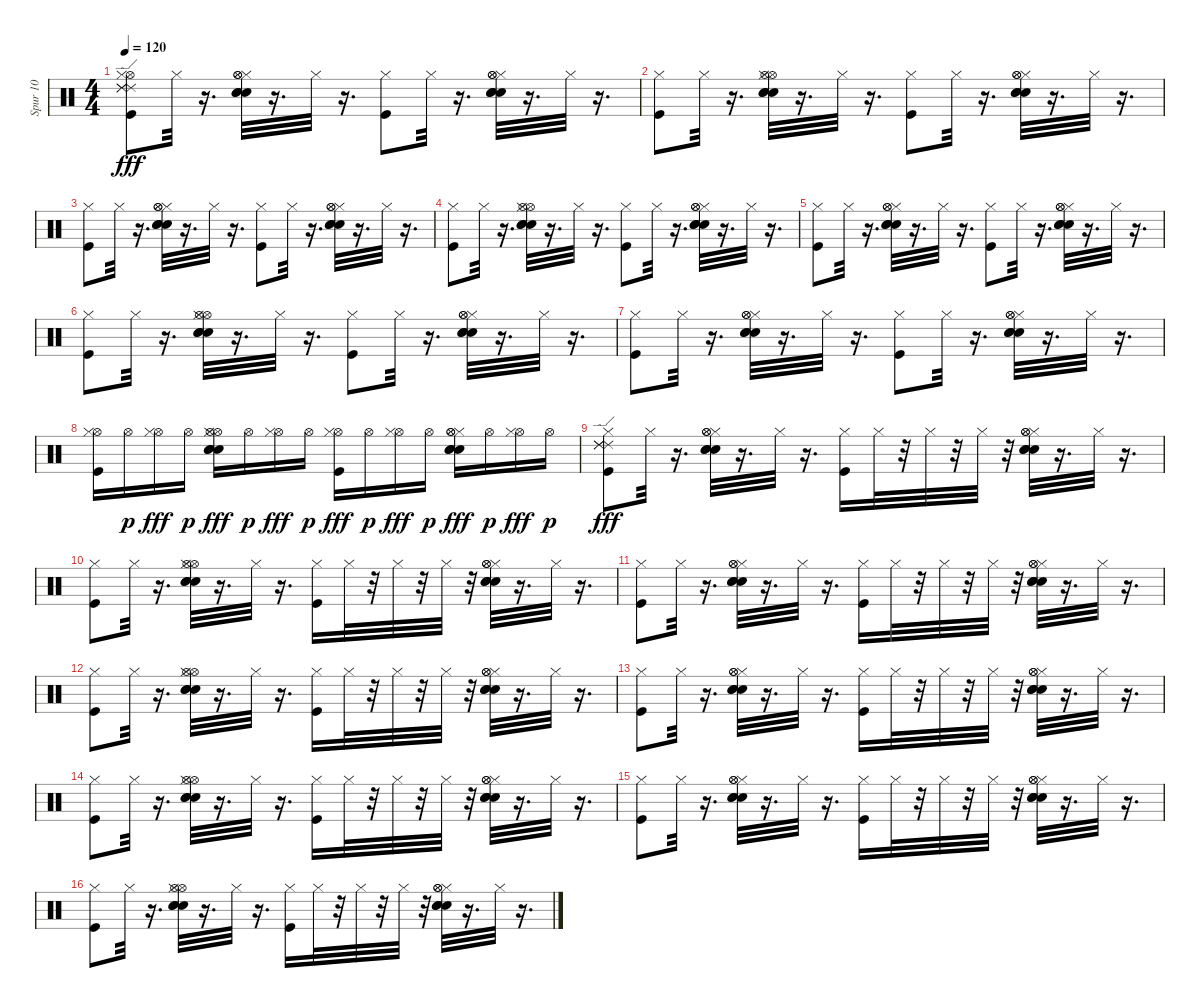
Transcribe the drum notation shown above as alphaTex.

\track ("Spur 10" "Spur 10") {instrument percussion}
\staff {score}
\articulation defaults
\ts (4 4)
\tempo 120
\clef neutral
\ks c
("Ride (edge) 2" "Ride (edge) 2" "Ride (edge) 2" "Hi-Hat (open)" "Kick (hit)" "Hi-Hat (closed)").8{dy fff} "Hi-Hat (closed)".32 r.16{d} ("Snare (hit) 2" "Snare (hit) 2" "Hi-Hat (closed)" "Snare (hit) 2" "Hi-Hat (open)" "Hi-Hat (open)").32 r.16{d} "Hi-Hat (closed)".32 r.16{d} ("Hi-Hat (closed)" "Kick (hit)").8 "Hi-Hat (closed)".32 r.16{d} ("Hi-Hat (closed)" "Snare (hit) 2" "Hi-Hat (open)" "Hi-Hat (open)" "Snare (hit) 2" "Snare (hit) 2").32 r.16{d} "Hi-Hat (closed)".32 r.16{d} |
("Hi-Hat (closed)" "Kick (hit)").8 "Hi-Hat (closed)".32 r.16{d} ("Hi-Hat (open)" "Hi-Hat (closed)" "Snare (hit) 2" "Hi-Hat (open)" "Snare (hit) 2" "Snare (hit) 2").32 r.16{d} "Hi-Hat (closed)".32 r.16{d} ("Kick (hit)" "Hi-Hat (closed)").8 "Hi-Hat (closed)".32 r.16{d} ("Snare (hit) 2" "Hi-Hat (closed)" "Hi-Hat (open)" "Snare (hit) 2" "Hi-Hat (open)" "Snare (hit) 2").32 r.16{d} "Hi-Hat (closed)".32 r.16{d} |
("Kick (hit)" "Hi-Hat (closed)").8 "Hi-Hat (closed)".32 r.16{d} ("Snare (hit) 2" "Snare (hit) 2" "Hi-Hat (closed)" "Snare (hit) 2" "Hi-Hat (open)" "Hi-Hat (open)").32 r.16{d} "Hi-Hat (closed)".32 r.16{d} ("Hi-Hat (closed)" "Kick (hit)").8 "Hi-Hat (closed)".32 r.16{d} ("Hi-Hat (closed)" "Snare (hit) 2" "Hi-Hat (open)" "Hi-Hat (open)" "Snare (hit) 2" "Snare (hit) 2").32 r.16{d} "Hi-Hat (closed)".32 r.16{d} |
("Hi-Hat (closed)" "Kick (hit)").8 "Hi-Hat (closed)".32 r.16{d} ("Hi-Hat (open)" "Hi-Hat (closed)" "Snare (hit) 2" "Hi-Hat (open)" "Snare (hit) 2" "Snare (hit) 2").32 r.16{d} "Hi-Hat (closed)".32 r.16{d} ("Kick (hit)" "Hi-Hat (closed)").8 "Hi-Hat (closed)".32 r.16{d} ("Snare (hit) 2" "Hi-Hat (closed)" "Hi-Hat (open)" "Snare (hit) 2" "Hi-Hat (open)" "Snare (hit) 2").32 r.16{d} "Hi-Hat (closed)".32 r.16{d} |
("Kick (hit)" "Hi-Hat (closed)").8 "Hi-Hat (closed)".32 r.16{d} ("Snare (hit) 2" "Snare (hit) 2" "Hi-Hat (closed)" "Snare (hit) 2" "Hi-Hat (open)" "Hi-Hat (open)").32 r.16{d} "Hi-Hat (closed)".32 r.16{d} ("Hi-Hat (closed)" "Kick (hit)").8 "Hi-Hat (closed)".32 r.16{d} ("Hi-Hat (closed)" "Snare (hit) 2" "Hi-Hat (open)" "Hi-Hat (open)" "Snare (hit) 2" "Snare (hit) 2").32 r.16{d} "Hi-Hat (closed)".32 r.16{d} |
("Hi-Hat (closed)" "Kick (hit)").8 "Hi-Hat (closed)".32 r.16{d} ("Hi-Hat (open)" "Hi-Hat (closed)" "Snare (hit) 2" "Hi-Hat (open)" "Snare (hit) 2" "Snare (hit) 2").32 r.16{d} "Hi-Hat (closed)".32 r.16{d} ("Kick (hit)" "Hi-Hat (closed)").8 "Hi-Hat (closed)".32 r.16{d} ("Snare (hit) 2" "Hi-Hat (closed)" "Hi-Hat (open)" "Snare (hit) 2" "Hi-Hat (open)" "Snare (hit) 2").32 r.16{d} "Hi-Hat (closed)".32 r.16{d} |
("Kick (hit)" "Hi-Hat (closed)").8 "Hi-Hat (closed)".32 r.16{d} ("Snare (hit) 2" "Snare (hit) 2" "Hi-Hat (closed)" "Snare (hit) 2" "Hi-Hat (open)" "Hi-Hat (open)").32 r.16{d} "Hi-Hat (closed)".32 r.16{d} ("Hi-Hat (closed)" "Kick (hit)").8 "Hi-Hat (closed)".32 r.16{d} ("Hi-Hat (closed)" "Snare (hit) 2" "Hi-Hat (open)" "Hi-Hat (open)" "Snare (hit) 2" "Snare (hit) 2").32 r.16{d} "Hi-Hat (closed)".32 r.16{d} |
("Hi-Hat (open)" "Hi-Hat (closed)" "Kick (hit)").16 "Hi-Hat (open)".16{dy p} ("Hi-Hat (open)" "Hi-Hat (closed)").16{dy fff} "Hi-Hat (open)".16{dy p} ("Hi-Hat (open)" "Hi-Hat (closed)" "Snare (hit) 2" "Hi-Hat (open)" "Snare (hit) 2" "Snare (hit) 2").16{dy fff} "Hi-Hat (open)".16{dy p} ("Hi-Hat (open)" "Hi-Hat (closed)").16{dy fff} "Hi-Hat (open)".16{dy p} ("Hi-Hat (open)" "Kick (hit)" "Hi-Hat (closed)").16{dy fff} "Hi-Hat (open)".16{dy p} ("Hi-Hat (open)" "Hi-Hat (closed)").16{dy fff} "Hi-Hat (open)".16{dy p} ("Snare (hit) 2" "Hi-Hat (closed)" "Hi-Hat (open)" "Snare (hit) 2" "Hi-Hat (open)" "Snare (hit) 2").16{dy fff} "Hi-Hat (open)".16{dy p} ("Hi-Hat (open)" "Hi-Hat (closed)").16{dy fff} "Hi-Hat (open)".16{dy p} |
("Ride (edge) 2" "Ride (edge) 2" "Ride (edge) 2" "Kick (hit)" "Hi-Hat (closed)").8{dy fff} "Hi-Hat (closed)".32 r.16{d} ("Snare (hit) 2" "Snare (hit) 2" "Hi-Hat (closed)" "Snare (hit) 2" "Hi-Hat (open)" "Hi-Hat (open)").32 r.16{d} "Hi-Hat (closed)".32 r.16{d} ("Hi-Hat (closed)" "Kick (hit)").16 "Hi-Hat (closed)".32 r.32 "Hi-Hat (closed)".32 r.32 "Hi-Hat (closed)".32 r.32 ("Hi-Hat (closed)" "Snare (hit) 2" "Hi-Hat (open)" "Hi-Hat (open)" "Snare (hit) 2" "Snare (hit) 2").32 r.16{d} "Hi-Hat (closed)".32 r.16{d} |
("Hi-Hat (closed)" "Kick (hit)").8 "Hi-Hat (closed)".32 r.16{d} ("Hi-Hat (open)" "Hi-Hat (closed)" "Snare (hit) 2" "Hi-Hat (open)" "Snare (hit) 2" "Snare (hit) 2").32 r.16{d} "Hi-Hat (closed)".32 r.16{d} ("Kick (hit)" "Hi-Hat (closed)").16 "Hi-Hat (closed)".32 r.32 "Hi-Hat (closed)".32 r.32 "Hi-Hat (closed)".32 r.32 ("Snare (hit) 2" "Hi-Hat (closed)" "Hi-Hat (open)" "Snare (hit) 2" "Hi-Hat (open)" "Snare (hit) 2").32 r.16{d} "Hi-Hat (closed)".32 r.16{d} |
("Kick (hit)" "Hi-Hat (closed)").8 "Hi-Hat (closed)".32 r.16{d} ("Snare (hit) 2" "Snare (hit) 2" "Hi-Hat (closed)" "Snare (hit) 2" "Hi-Hat (open)" "Hi-Hat (open)").32 r.16{d} "Hi-Hat (closed)".32 r.16{d} ("Hi-Hat (closed)" "Kick (hit)").16 "Hi-Hat (closed)".32 r.32 "Hi-Hat (closed)".32 r.32 "Hi-Hat (closed)".32 r.32 ("Hi-Hat (closed)" "Snare (hit) 2" "Hi-Hat (open)" "Hi-Hat (open)" "Snare (hit) 2" "Snare (hit) 2").32 r.16{d} "Hi-Hat (closed)".32 r.16{d} |
("Hi-Hat (closed)" "Kick (hit)").8 "Hi-Hat (closed)".32 r.16{d} ("Hi-Hat (open)" "Hi-Hat (closed)" "Snare (hit) 2" "Hi-Hat (open)" "Snare (hit) 2" "Snare (hit) 2").32 r.16{d} "Hi-Hat (closed)".32 r.16{d} ("Kick (hit)" "Hi-Hat (closed)").16 "Hi-Hat (closed)".32 r.32 "Hi-Hat (closed)".32 r.32 "Hi-Hat (closed)".32 r.32 ("Snare (hit) 2" "Hi-Hat (closed)" "Hi-Hat (open)" "Snare (hit) 2" "Hi-Hat (open)" "Snare (hit) 2").32 r.16{d} "Hi-Hat (closed)".32 r.16{d} |
("Kick (hit)" "Hi-Hat (closed)").8 "Hi-Hat (closed)".32 r.16{d} ("Snare (hit) 2" "Snare (hit) 2" "Hi-Hat (closed)" "Snare (hit) 2" "Hi-Hat (open)" "Hi-Hat (open)").32 r.16{d} "Hi-Hat (closed)".32 r.16{d} ("Hi-Hat (closed)" "Kick (hit)").16 "Hi-Hat (closed)".32 r.32 "Hi-Hat (closed)".32 r.32 "Hi-Hat (closed)".32 r.32 ("Hi-Hat (closed)" "Snare (hit) 2" "Hi-Hat (open)" "Hi-Hat (open)" "Snare (hit) 2" "Snare (hit) 2").32 r.16{d} "Hi-Hat (closed)".32 r.16{d} |
("Hi-Hat (closed)" "Kick (hit)").8 "Hi-Hat (closed)".32 r.16{d} ("Hi-Hat (open)" "Hi-Hat (closed)" "Snare (hit) 2" "Hi-Hat (open)" "Snare (hit) 2" "Snare (hit) 2").32 r.16{d} "Hi-Hat (closed)".32 r.16{d} ("Kick (hit)" "Hi-Hat (closed)").16 "Hi-Hat (closed)".32 r.32 "Hi-Hat (closed)".32 r.32 "Hi-Hat (closed)".32 r.32 ("Snare (hit) 2" "Hi-Hat (closed)" "Hi-Hat (open)" "Snare (hit) 2" "Hi-Hat (open)" "Snare (hit) 2").32 r.16{d} "Hi-Hat (closed)".32 r.16{d} |
("Kick (hit)" "Hi-Hat (closed)").8 "Hi-Hat (closed)".32 r.16{d} ("Snare (hit) 2" "Snare (hit) 2" "Hi-Hat (closed)" "Snare (hit) 2" "Hi-Hat (open)" "Hi-Hat (open)").32 r.16{d} "Hi-Hat (closed)".32 r.16{d} ("Hi-Hat (closed)" "Kick (hit)").16 "Hi-Hat (closed)".32 r.32 "Hi-Hat (closed)".32 r.32 "Hi-Hat (closed)".32 r.32 ("Hi-Hat (closed)" "Snare (hit) 2" "Hi-Hat (open)" "Hi-Hat (open)" "Snare (hit) 2" "Snare (hit) 2").32 r.16{d} "Hi-Hat (closed)".32 r.16{d} |
("Hi-Hat (closed)" "Kick (hit)").8 "Hi-Hat (closed)".32 r.16{d} ("Hi-Hat (open)" "Hi-Hat (closed)" "Snare (hit) 2" "Hi-Hat (open)" "Snare (hit) 2" "Snare (hit) 2").32 r.16{d} "Hi-Hat (closed)".32 r.16{d} ("Kick (hit)" "Hi-Hat (closed)").16 "Hi-Hat (closed)".32 r.32 "Hi-Hat (closed)".32 r.32 "Hi-Hat (closed)".32 r.32 ("Snare (hit) 2" "Hi-Hat (closed)" "Hi-Hat (open)" "Snare (hit) 2" "Hi-Hat (open)" "Snare (hit) 2").32 r.16{d} "Hi-Hat (closed)".32 r.16{d}
